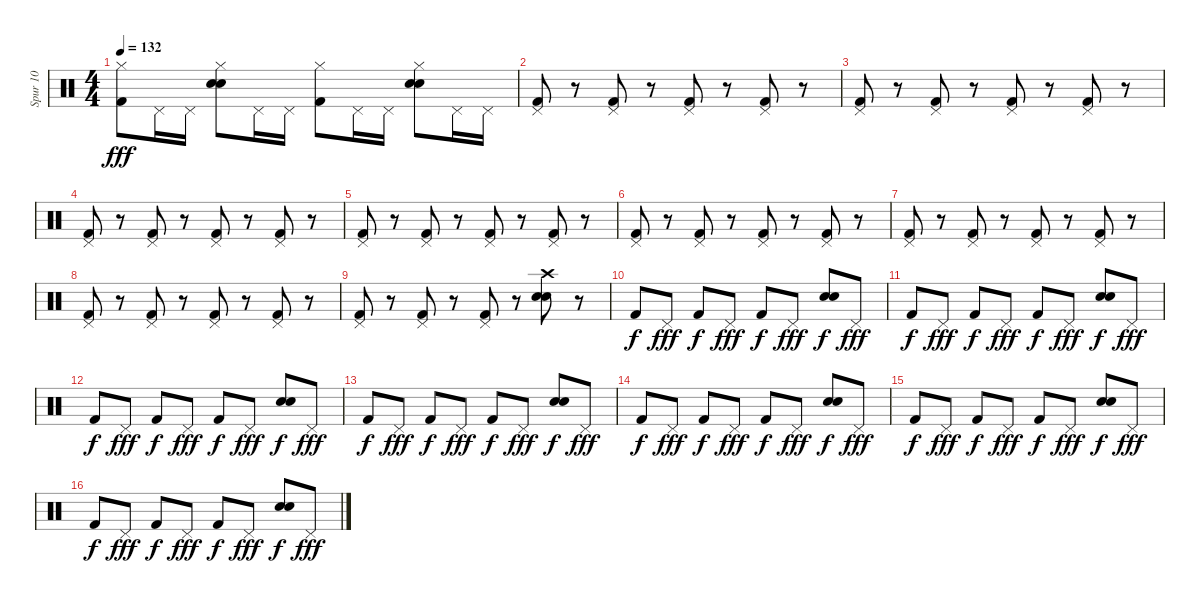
\track ("Spur 10" "Spur 10") {instrument percussion}
\staff {score}
\articulation defaults
\ts (4 4)
\tempo 132
\clef neutral
\ks c
("Kick (hit) 2" "Hi-Hat (closed)").8{dy fff} "Pedal Hi-Hat (hit)".16 "Pedal Hi-Hat (hit)".16 ("Electric Snare (hit)" "Hi-Hat (closed)" "Hand Clap (hit)").8 "Pedal Hi-Hat (hit)".16 "Pedal Hi-Hat (hit)".16 ("Kick (hit) 2" "Hi-Hat (closed)").8 "Pedal Hi-Hat (hit)".16 "Pedal Hi-Hat (hit)".16 ("Electric Snare (hit)" "Hi-Hat (closed)" "Hand Clap (hit)").8 "Pedal Hi-Hat (hit)".16 "Pedal Hi-Hat (hit)".16 |
("Kick (hit) 2" "Pedal Hi-Hat (hit)").8 r.8 ("Kick (hit) 2" "Pedal Hi-Hat (hit)").8 r.8 ("Kick (hit) 2" "Pedal Hi-Hat (hit)").8 r.8 ("Kick (hit) 2" "Pedal Hi-Hat (hit)").8 r.8 |
("Kick (hit) 2" "Pedal Hi-Hat (hit)").8 r.8 ("Kick (hit) 2" "Pedal Hi-Hat (hit)").8 r.8 ("Kick (hit) 2" "Pedal Hi-Hat (hit)").8 r.8 ("Kick (hit) 2" "Pedal Hi-Hat (hit)").8 r.8 |
("Kick (hit) 2" "Pedal Hi-Hat (hit)").8 r.8 ("Kick (hit) 2" "Pedal Hi-Hat (hit)").8 r.8 ("Kick (hit) 2" "Pedal Hi-Hat (hit)").8 r.8 ("Kick (hit) 2" "Pedal Hi-Hat (hit)").8 r.8 |
("Kick (hit) 2" "Pedal Hi-Hat (hit)").8 r.8 ("Kick (hit) 2" "Pedal Hi-Hat (hit)").8 r.8 ("Kick (hit) 2" "Pedal Hi-Hat (hit)").8 r.8 ("Kick (hit) 2" "Pedal Hi-Hat (hit)").8 r.8 |
("Kick (hit) 2" "Pedal Hi-Hat (hit)").8 r.8 ("Kick (hit) 2" "Pedal Hi-Hat (hit)").8 r.8 ("Kick (hit) 2" "Pedal Hi-Hat (hit)").8 r.8 ("Kick (hit) 2" "Pedal Hi-Hat (hit)").8 r.8 |
("Kick (hit) 2" "Pedal Hi-Hat (hit)").8 r.8 ("Kick (hit) 2" "Pedal Hi-Hat (hit)").8 r.8 ("Kick (hit) 2" "Pedal Hi-Hat (hit)").8 r.8 ("Kick (hit) 2" "Pedal Hi-Hat (hit)").8 r.8 |
("Kick (hit) 2" "Pedal Hi-Hat (hit)").8 r.8 ("Kick (hit) 2" "Pedal Hi-Hat (hit)").8 r.8 ("Kick (hit) 2" "Pedal Hi-Hat (hit)").8 r.8 ("Kick (hit) 2" "Pedal Hi-Hat (hit)").8 r.8 |
("Kick (hit) 2" "Pedal Hi-Hat (hit)").8 r.8 ("Kick (hit) 2" "Pedal Hi-Hat (hit)").8 r.8 ("Kick (hit) 2" "Pedal Hi-Hat (hit)").8 r.8 ("Hand Clap (hit)" "Electric Snare (hit)" "Crash high (hit)").8 r.8 |
"Kick (hit) 2".8{dy f} "Pedal Hi-Hat (hit)".8{dy fff} "Kick (hit) 2".8{dy f} "Pedal Hi-Hat (hit)".8{dy fff} "Kick (hit) 2".8{dy f} "Pedal Hi-Hat (hit)".8{dy fff} ("Hand Clap (hit)" "Electric Snare (hit)").8{dy f} "Pedal Hi-Hat (hit)".8{dy fff} |
"Kick (hit) 2".8{dy f} "Pedal Hi-Hat (hit)".8{dy fff} "Kick (hit) 2".8{dy f} "Pedal Hi-Hat (hit)".8{dy fff} "Kick (hit) 2".8{dy f} "Pedal Hi-Hat (hit)".8{dy fff} ("Hand Clap (hit)" "Electric Snare (hit)").8{dy f} "Pedal Hi-Hat (hit)".8{dy fff} |
"Kick (hit) 2".8{dy f} "Pedal Hi-Hat (hit)".8{dy fff} "Kick (hit) 2".8{dy f} "Pedal Hi-Hat (hit)".8{dy fff} "Kick (hit) 2".8{dy f} "Pedal Hi-Hat (hit)".8{dy fff} ("Hand Clap (hit)" "Electric Snare (hit)").8{dy f} "Pedal Hi-Hat (hit)".8{dy fff} |
"Kick (hit) 2".8{dy f} "Pedal Hi-Hat (hit)".8{dy fff} "Kick (hit) 2".8{dy f} "Pedal Hi-Hat (hit)".8{dy fff} "Kick (hit) 2".8{dy f} "Pedal Hi-Hat (hit)".8{dy fff} ("Hand Clap (hit)" "Electric Snare (hit)").8{dy f} "Pedal Hi-Hat (hit)".8{dy fff} |
"Kick (hit) 2".8{dy f} "Pedal Hi-Hat (hit)".8{dy fff} "Kick (hit) 2".8{dy f} "Pedal Hi-Hat (hit)".8{dy fff} "Kick (hit) 2".8{dy f} "Pedal Hi-Hat (hit)".8{dy fff} ("Hand Clap (hit)" "Electric Snare (hit)").8{dy f} "Pedal Hi-Hat (hit)".8{dy fff} |
"Kick (hit) 2".8{dy f} "Pedal Hi-Hat (hit)".8{dy fff} "Kick (hit) 2".8{dy f} "Pedal Hi-Hat (hit)".8{dy fff} "Kick (hit) 2".8{dy f} "Pedal Hi-Hat (hit)".8{dy fff} ("Hand Clap (hit)" "Electric Snare (hit)").8{dy f} "Pedal Hi-Hat (hit)".8{dy fff} |
"Kick (hit) 2".8{dy f} "Pedal Hi-Hat (hit)".8{dy fff} "Kick (hit) 2".8{dy f} "Pedal Hi-Hat (hit)".8{dy fff} "Kick (hit) 2".8{dy f} "Pedal Hi-Hat (hit)".8{dy fff} ("Hand Clap (hit)" "Electric Snare (hit)").8{dy f} "Pedal Hi-Hat (hit)".8{dy fff}
